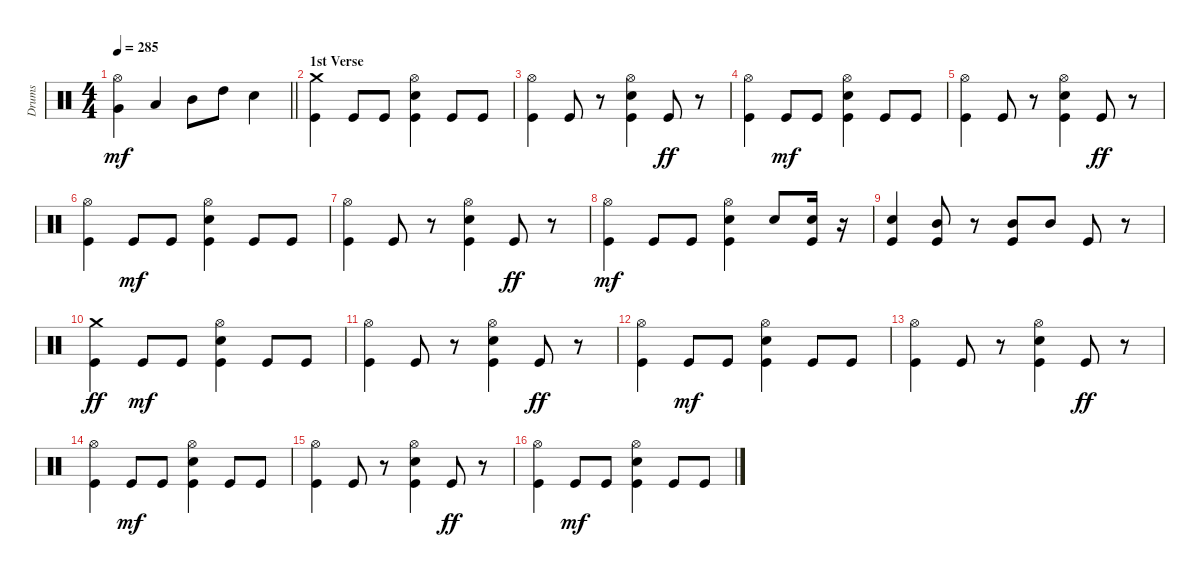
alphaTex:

\track ("Drums" "Drums") {instrument percussion}
\staff {score}
\articulation defaults
\ts (4 4)
\tempo 285
\clef neutral
\barLineRight lightlight
\ks c
("Hi-Hat (open)" "Very Low Tom (hit)").4{dy mf} "Low Floor Tom (hit)".4 "Mid Tom (hit)".8 "High Tom (hit)".8 "Snare (hit) 2".4 |
\section ("" "1st Verse")
("Crash medium (hit)" "Kick (hit)").4 "Kick (hit)".8 "Kick (hit)".8 ("Hi-Hat (open)" "Snare (hit) 2" "Kick (hit)").4 "Kick (hit)".8 "Kick (hit)".8 |
("Hi-Hat (open)" "Kick (hit)").4 "Kick (hit)".8 r.8 ("Hi-Hat (open)" "Snare (hit) 2" "Kick (hit)").4 "Kick (hit)".8{dy ff} r.8 |
("Hi-Hat (open)" "Kick (hit)").4 "Kick (hit)".8{dy mf} "Kick (hit)".8 ("Hi-Hat (open)" "Snare (hit) 2" "Kick (hit)").4 "Kick (hit)".8 "Kick (hit)".8 |
("Hi-Hat (open)" "Kick (hit)").4 "Kick (hit)".8 r.8 ("Hi-Hat (open)" "Snare (hit) 2" "Kick (hit)").4 "Kick (hit)".8{dy ff} r.8 |
("Hi-Hat (open)" "Kick (hit)").4 "Kick (hit)".8{dy mf} "Kick (hit)".8 ("Hi-Hat (open)" "Snare (hit) 2" "Kick (hit)").4 "Kick (hit)".8 "Kick (hit)".8 |
("Hi-Hat (open)" "Kick (hit)").4 "Kick (hit)".8 r.8 ("Hi-Hat (open)" "Snare (hit) 2" "Kick (hit)").4 "Kick (hit)".8{dy ff} r.8 |
("Hi-Hat (open)" "Kick (hit)").4{dy mf} "Kick (hit)".8 "Kick (hit)".8 ("Hi-Hat (open)" "Snare (hit) 2" "Kick (hit)").4 "Snare (hit) 2".8 ("Snare (hit) 2" "Kick (hit)").16 r.16 |
("Snare (hit) 2" "Kick (hit)").4 ("Mid Tom (hit)" "Kick (hit)").8 r.8 ("Mid Tom (hit)" "Kick (hit)").8 "Mid Tom (hit)".8 "Kick (hit)".8 r.8 |
("Crash medium (hit)" "Kick (hit)").4{dy ff} "Kick (hit)".8{dy mf} "Kick (hit)".8 ("Hi-Hat (open)" "Snare (hit) 2" "Kick (hit)").4 "Kick (hit)".8 "Kick (hit)".8 |
("Hi-Hat (open)" "Kick (hit)").4 "Kick (hit)".8 r.8 ("Hi-Hat (open)" "Snare (hit) 2" "Kick (hit)").4 "Kick (hit)".8{dy ff} r.8 |
("Hi-Hat (open)" "Kick (hit)").4 "Kick (hit)".8{dy mf} "Kick (hit)".8 ("Hi-Hat (open)" "Snare (hit) 2" "Kick (hit)").4 "Kick (hit)".8 "Kick (hit)".8 |
("Hi-Hat (open)" "Kick (hit)").4 "Kick (hit)".8 r.8 ("Hi-Hat (open)" "Snare (hit) 2" "Kick (hit)").4 "Kick (hit)".8{dy ff} r.8 |
("Hi-Hat (open)" "Kick (hit)").4 "Kick (hit)".8{dy mf} "Kick (hit)".8 ("Hi-Hat (open)" "Snare (hit) 2" "Kick (hit)").4 "Kick (hit)".8 "Kick (hit)".8 |
("Hi-Hat (open)" "Kick (hit)").4 "Kick (hit)".8 r.8 ("Hi-Hat (open)" "Snare (hit) 2" "Kick (hit)").4 "Kick (hit)".8{dy ff} r.8 |
("Hi-Hat (open)" "Kick (hit)").4 "Kick (hit)".8{dy mf} "Kick (hit)".8 ("Hi-Hat (open)" "Snare (hit) 2" "Kick (hit)").4 "Kick (hit)".8 "Kick (hit)".8
